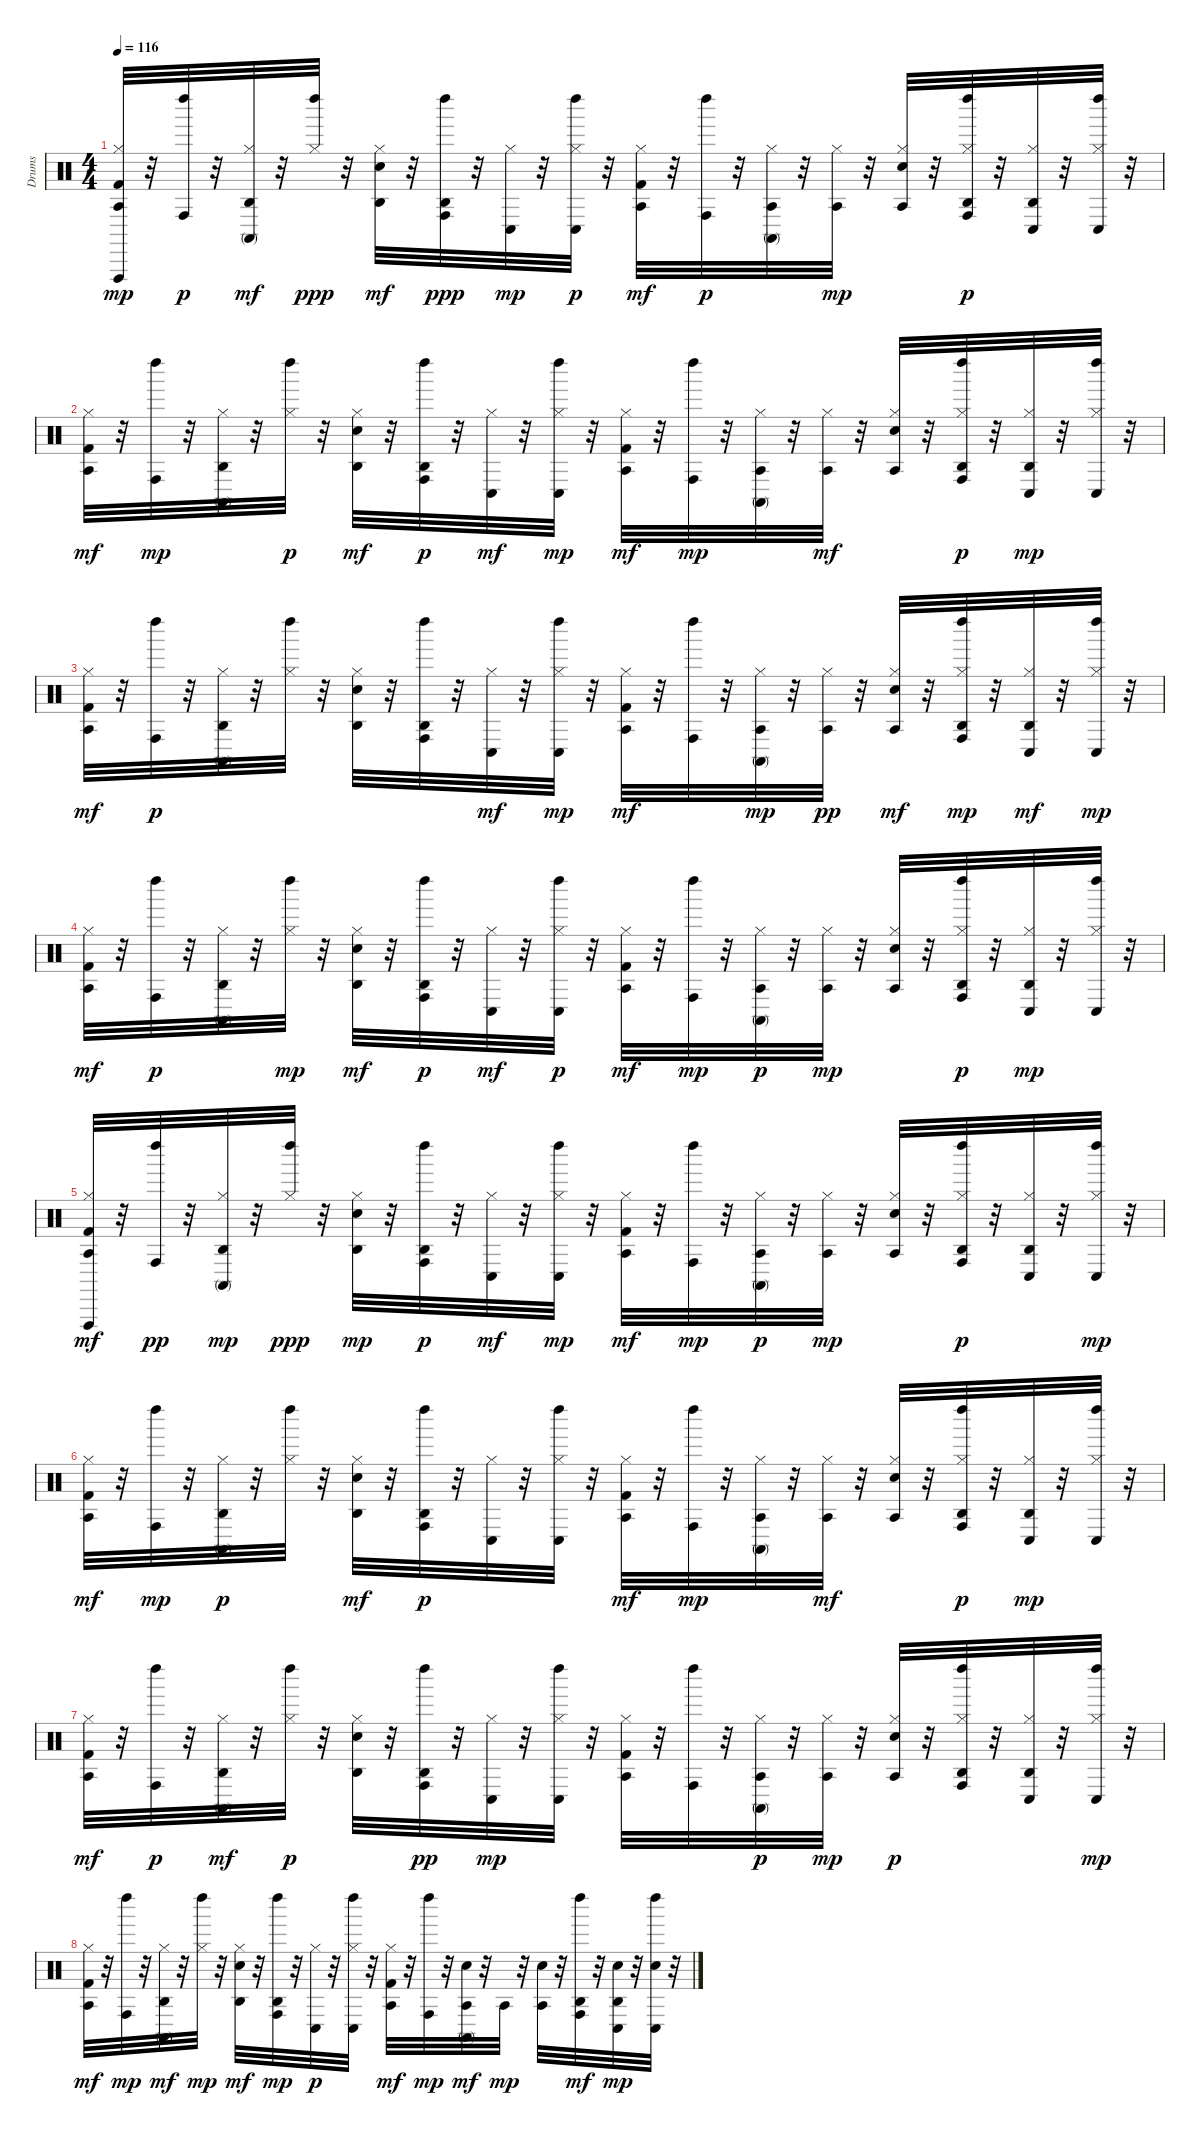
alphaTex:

\track ("Drums" "Drums") {instrument percussion}
\staff {score}
\articulation defaults
\ts (4 4)
\tempo 116
\clef neutral
\ks c
("Hi-Hat (closed)" "Kick (hit) 2" "Agogo tow (hit)" "Vibraslap (hit)").32{dy mp} r.32 ("Left Maraca (hit)" "Conga high (hit)").32{dy p} r.32 ("Conga high (mute)" "Agogo high (hit)" "Hi-Hat (closed)").32{dy mf} r.32 ("Hi-Hat (closed)" "Left Maraca (hit)").32{dy ppp} r.32 ("Snare (hit) 2" "Agogo high (hit)" "Hi-Hat (closed)").32{dy mf} r.32 ("Conga high (hit)" "Agogo high (hit)" "Left Maraca (hit)").32{dy ppp} r.32 ("Hi-Hat (closed)" "Conga low (hit)").32{dy mp} r.32 ("Hi-Hat (closed)" "Conga low (hit)" "Left Maraca (hit)").32{dy p} r.32 ("Hi-Hat (closed)" "Kick (hit) 2" "Agogo tow (hit)").32{dy mf} r.32 ("Conga high (hit)" "Left Maraca (hit)").32{dy p} r.32 ("Hi-Hat (closed)" "Agogo tow (hit)" "Conga high (mute)").32 r.32 ("Hi-Hat (closed)" "Agogo tow (hit)").32{dy mp} r.32 ("Hi-Hat (closed)" "Agogo tow (hit)" "Snare (hit) 2").32 r.32 ("Hi-Hat (closed)" "Left Maraca (hit)" "Agogo high (hit)" "Conga high (hit)").32{dy p} r.32 ("Hi-Hat (closed)" "Agogo high (hit)" "Conga low (hit)").32 r.32 ("Hi-Hat (closed)" "Conga low (hit)" "Left Maraca (hit)").32 r.32 |
("Agogo tow (hit)" "Hi-Hat (closed)" "Kick (hit) 2").32{dy mf} r.32 ("Left Maraca (hit)" "Conga high (hit)").32{dy mp} r.32 ("Conga high (mute)" "Hi-Hat (closed)" "Agogo high (hit)").32 r.32 ("Hi-Hat (closed)" "Left Maraca (hit)").32{dy p} r.32 ("Snare (hit) 2" "Agogo high (hit)" "Hi-Hat (closed)").32{dy mf} r.32 ("Left Maraca (hit)" "Conga high (hit)" "Agogo high (hit)").32{dy p} r.32 ("Conga low (hit)" "Hi-Hat (closed)").32{dy mf} r.32 ("Conga low (hit)" "Hi-Hat (closed)" "Left Maraca (hit)").32{dy mp} r.32 ("Agogo tow (hit)" "Hi-Hat (closed)" "Kick (hit) 2").32{dy mf} r.32 ("Left Maraca (hit)" "Conga high (hit)").32{dy mp} r.32 ("Conga high (mute)" "Hi-Hat (closed)" "Agogo tow (hit)").32 r.32 ("Hi-Hat (closed)" "Agogo tow (hit)").32{dy mf} r.32 ("Hi-Hat (closed)" "Agogo tow (hit)" "Snare (hit) 2").32 r.32 ("Hi-Hat (closed)" "Left Maraca (hit)" "Agogo high (hit)" "Conga high (hit)").32{dy p} r.32 ("Agogo high (hit)" "Hi-Hat (closed)" "Conga low (hit)").32{dy mp} r.32 ("Hi-Hat (closed)" "Left Maraca (hit)" "Conga low (hit)").32 r.32 |
("Kick (hit) 2" "Agogo tow (hit)" "Hi-Hat (closed)").32{dy mf} r.32 ("Conga high (hit)" "Left Maraca (hit)").32{dy p} r.32 ("Hi-Hat (closed)" "Agogo high (hit)" "Conga high (mute)").32 r.32 ("Hi-Hat (closed)" "Left Maraca (hit)").32 r.32 ("Snare (hit) 2" "Hi-Hat (closed)" "Agogo high (hit)").32 r.32 ("Conga high (hit)" "Left Maraca (hit)" "Agogo high (hit)").32 r.32 ("Conga low (hit)" "Hi-Hat (closed)").32{dy mf} r.32 ("Conga low (hit)" "Hi-Hat (closed)" "Left Maraca (hit)").32{dy mp} r.32 ("Kick (hit) 2" "Agogo tow (hit)" "Hi-Hat (closed)").32{dy mf} r.32 ("Left Maraca (hit)" "Conga high (hit)").32 r.32 ("Conga high (mute)" "Hi-Hat (closed)" "Agogo tow (hit)").32{dy mp} r.32 ("Hi-Hat (closed)" "Agogo tow (hit)").32{dy pp} r.32 ("Agogo tow (hit)" "Snare (hit) 2" "Hi-Hat (closed)").32{dy mf} r.32 ("Left Maraca (hit)" "Agogo high (hit)" "Conga high (hit)" "Hi-Hat (closed)").32{dy mp} r.32 ("Conga low (hit)" "Agogo high (hit)" "Hi-Hat (closed)").32{dy mf} r.32 ("Hi-Hat (closed)" "Left Maraca (hit)" "Conga low (hit)").32{dy mp} r.32 |
("Hi-Hat (closed)" "Agogo tow (hit)" "Kick (hit) 2").32{dy mf} r.32 ("Conga high (hit)" "Left Maraca (hit)").32{dy p} r.32 ("Hi-Hat (closed)" "Agogo high (hit)" "Conga high (mute)").32 r.32 ("Left Maraca (hit)" "Hi-Hat (closed)").32{dy mp} r.32 ("Agogo high (hit)" "Hi-Hat (closed)" "Snare (hit) 2").32{dy mf} r.32 ("Agogo high (hit)" "Conga high (hit)" "Left Maraca (hit)").32{dy p} r.32 ("Conga low (hit)" "Hi-Hat (closed)").32{dy mf} r.32 ("Hi-Hat (closed)" "Left Maraca (hit)" "Conga low (hit)").32{dy p} r.32 ("Hi-Hat (closed)" "Agogo tow (hit)" "Kick (hit) 2").32{dy mf} r.32 ("Conga high (hit)" "Left Maraca (hit)").32{dy mp} r.32 ("Hi-Hat (closed)" "Agogo tow (hit)" "Conga high (mute)").32{dy p} r.32 ("Agogo tow (hit)" "Hi-Hat (closed)").32{dy mp} r.32 ("Hi-Hat (closed)" "Snare (hit) 2" "Agogo tow (hit)").32 r.32 ("Hi-Hat (closed)" "Agogo high (hit)" "Conga high (hit)" "Left Maraca (hit)").32{dy p} r.32 ("Hi-Hat (closed)" "Agogo high (hit)" "Conga low (hit)").32{dy mp} r.32 ("Conga low (hit)" "Hi-Hat (closed)" "Left Maraca (hit)").32 r.32 |
("Vibraslap (hit)" "Agogo tow (hit)" "Kick (hit) 2" "Hi-Hat (closed)").32{dy mf} r.32 ("Conga high (hit)" "Left Maraca (hit)").32{dy pp} r.32 ("Hi-Hat (closed)" "Agogo high (hit)" "Conga high (mute)").32{dy mp} r.32 ("Hi-Hat (closed)" "Left Maraca (hit)").32{dy ppp} r.32 ("Hi-Hat (closed)" "Agogo high (hit)" "Snare (hit) 2").32{dy mp} r.32 ("Left Maraca (hit)" "Agogo high (hit)" "Conga high (hit)").32{dy p} r.32 ("Conga low (hit)" "Hi-Hat (closed)").32{dy mf} r.32 ("Conga low (hit)" "Left Maraca (hit)" "Hi-Hat (closed)").32{dy mp} r.32 ("Kick (hit) 2" "Hi-Hat (closed)" "Agogo tow (hit)").32{dy mf} r.32 ("Left Maraca (hit)" "Conga high (hit)").32{dy mp} r.32 ("Agogo tow (hit)" "Hi-Hat (closed)" "Conga high (mute)").32{dy p} r.32 ("Hi-Hat (closed)" "Agogo tow (hit)").32{dy mp} r.32 ("Snare (hit) 2" "Hi-Hat (closed)" "Agogo tow (hit)").32 r.32 ("Agogo high (hit)" "Conga high (hit)" "Hi-Hat (closed)" "Left Maraca (hit)").32{dy p} r.32 ("Hi-Hat (closed)" "Conga low (hit)" "Agogo high (hit)").32 r.32 ("Conga low (hit)" "Left Maraca (hit)" "Hi-Hat (closed)").32{dy mp} r.32 |
("Kick (hit) 2" "Hi-Hat (closed)" "Agogo tow (hit)").32{dy mf} r.32 ("Left Maraca (hit)" "Conga high (hit)").32{dy mp} r.32 ("Agogo high (hit)" "Hi-Hat (closed)" "Conga high (mute)").32{dy p} r.32 ("Hi-Hat (closed)" "Left Maraca (hit)").32 r.32 ("Agogo high (hit)" "Snare (hit) 2" "Hi-Hat (closed)").32{dy mf} r.32 ("Conga high (hit)" "Agogo high (hit)" "Left Maraca (hit)").32{dy p} r.32 ("Hi-Hat (closed)" "Conga low (hit)").32 r.32 ("Left Maraca (hit)" "Hi-Hat (closed)" "Conga low (hit)").32 r.32 ("Kick (hit) 2" "Hi-Hat (closed)" "Agogo tow (hit)").32{dy mf} r.32 ("Conga high (hit)" "Left Maraca (hit)").32{dy mp} r.32 ("Hi-Hat (closed)" "Agogo tow (hit)" "Conga high (mute)").32 r.32 ("Hi-Hat (closed)" "Agogo tow (hit)").32{dy mf} r.32 ("Agogo tow (hit)" "Snare (hit) 2" "Hi-Hat (closed)").32 r.32 ("Left Maraca (hit)" "Hi-Hat (closed)" "Agogo high (hit)" "Conga high (hit)").32{dy p} r.32 ("Hi-Hat (closed)" "Agogo high (hit)" "Conga low (hit)").32{dy mp} r.32 ("Conga low (hit)" "Hi-Hat (closed)" "Left Maraca (hit)").32 r.32 |
("Agogo tow (hit)" "Hi-Hat (closed)" "Kick (hit) 2").32{dy mf} r.32 ("Conga high (hit)" "Left Maraca (hit)").32{dy p} r.32 ("Conga high (mute)" "Hi-Hat (closed)" "Agogo high (hit)").32{dy mf} r.32 ("Hi-Hat (closed)" "Left Maraca (hit)").32{dy p} r.32 ("Snare (hit) 2" "Hi-Hat (closed)" "Agogo high (hit)").32 r.32 ("Agogo high (hit)" "Conga high (hit)" "Left Maraca (hit)").32{dy pp} r.32 ("Hi-Hat (closed)" "Conga low (hit)").32{dy mp} r.32 ("Hi-Hat (closed)" "Left Maraca (hit)" "Conga low (hit)").32 r.32 ("Hi-Hat (closed)" "Kick (hit) 2" "Agogo tow (hit)").32 r.32 ("Conga high (hit)" "Left Maraca (hit)").32 r.32 ("Hi-Hat (closed)" "Agogo tow (hit)" "Conga high (mute)").32{dy p} r.32 ("Agogo tow (hit)" "Hi-Hat (closed)").32{dy mp} r.32 ("Snare (hit) 2" "Hi-Hat (closed)" "Agogo tow (hit)").32{dy p} r.32 ("Agogo high (hit)" "Conga high (hit)" "Hi-Hat (closed)" "Left Maraca (hit)").32 r.32 ("Hi-Hat (closed)" "Conga low (hit)" "Agogo high (hit)").32 r.32 ("Conga low (hit)" "Left Maraca (hit)" "Hi-Hat (closed)").32{dy mp} r.32 |
("Agogo tow (hit)" "Hi-Hat (closed)" "Kick (hit) 2").32{dy mf} r.32 ("Left Maraca (hit)" "Conga high (hit)").32{dy mp} r.32 ("Conga high (mute)" "Agogo high (hit)" "Hi-Hat (closed)").32{dy mf} r.32 ("Left Maraca (hit)" "Hi-Hat (closed)").32{dy mp} r.32 ("Snare (hit) 2" "Agogo high (hit)" "Hi-Hat (closed)").32{dy mf} r.32 ("Agogo high (hit)" "Left Maraca (hit)" "Conga high (hit)").32{dy mp} r.32 ("Hi-Hat (closed)" "Conga low (hit)").32{dy p} r.32 ("Left Maraca (hit)" "Hi-Hat (closed)" "Conga low (hit)").32 r.32 ("Kick (hit) 2" "Agogo tow (hit)" "Hi-Hat (closed)").32{dy mf} r.32 ("Left Maraca (hit)" "Conga high (hit)").32{dy mp} r.32 ("Conga high (mute)" "Snare (hit) 2" "Agogo tow (hit)").32{dy mf} r.32 "Agogo tow (hit)".32{dy mp} r.32 ("Snare (hit) 2" "Agogo tow (hit)").32 r.32 ("Left Maraca (hit)" "Conga high (hit)" "Agogo high (hit)").32{dy mf} r.32 ("Agogo high (hit)" "Conga low (hit)" "Snare (hit) 2").32{dy mp} r.32 ("Left Maraca (hit)" "Conga low (hit)" "Snare (hit) 2").32 r.32
